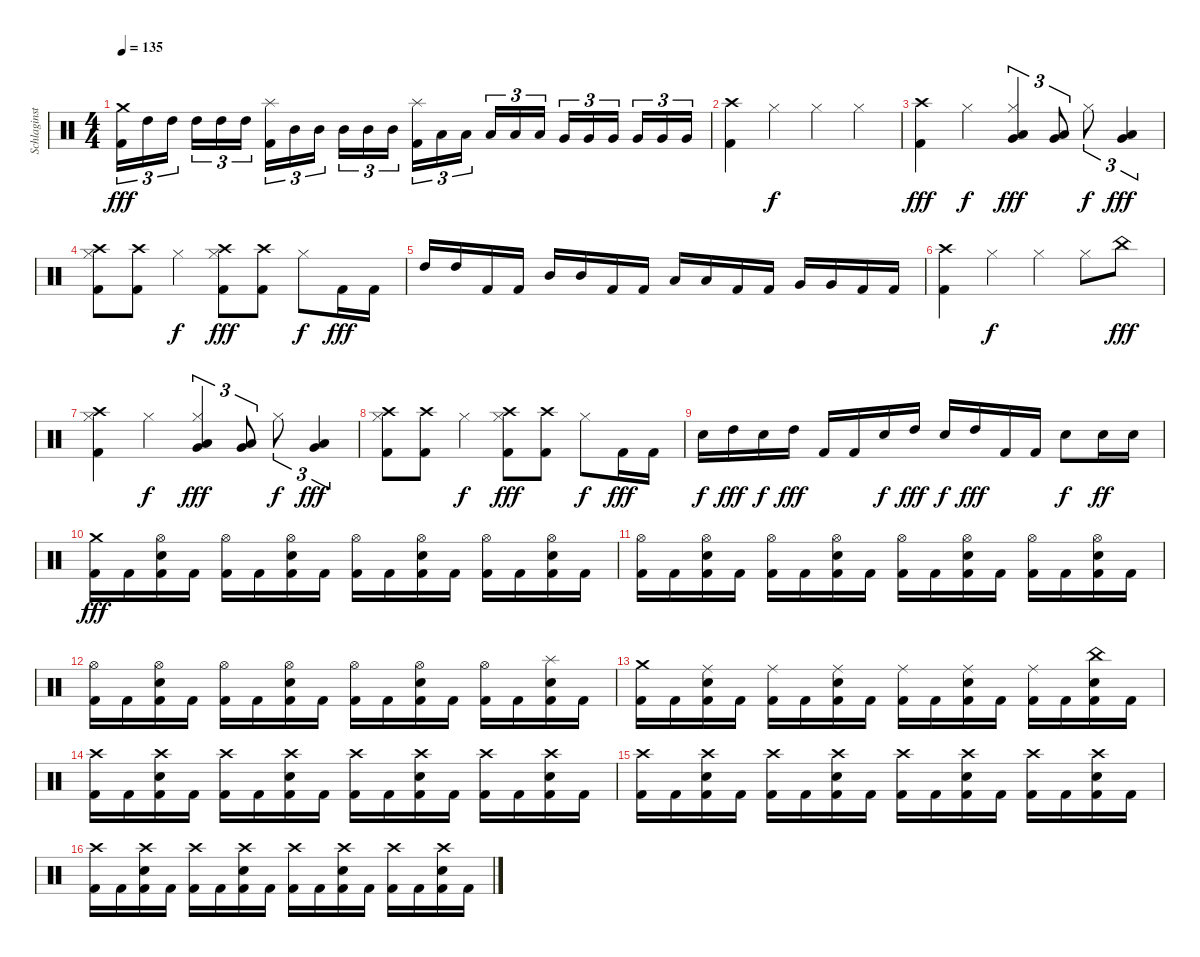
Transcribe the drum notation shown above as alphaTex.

\track ("Schlaginstrumente - Auswahl" "Schlaginst") {instrument percussion}
\staff {score}
\articulation defaults
\ts (4 4)
\tempo 135
\clef neutral
\ks c
("Crash medium (hit)" "Kick (hit) 2").16{tu (3 2) dy fff} "High Tom (hit)".16{tu (3 2)} "High Tom (hit)".16{tu (3 2) beam splitsecondary} "High Tom (hit)".16{tu (3 2)} "High Tom (hit)".16{tu (3 2)} "High Tom (hit)".16{tu (3 2)} ("Splash (hit)" "Kick (hit) 2").16{tu (3 2)} "Mid Tom (hit)".16{tu (3 2)} "Mid Tom (hit)".16{tu (3 2) beam splitsecondary} "Mid Tom (hit)".16{tu (3 2)} "Mid Tom (hit)".16{tu (3 2)} "Mid Tom (hit)".16{tu (3 2)} ("Splash (hit)" "Kick (hit) 2").16{tu (3 2)} "Low Tom (hit)".16{tu (3 2)} "Low Tom (hit)".16{tu (3 2) beam splitsecondary} "Low Tom (hit)".16{tu (3 2)} "Low Tom (hit)".16{tu (3 2)} "Low Tom (hit)".16{tu (3 2)} "Very Low Tom (hit)".16{tu (3 2)} "Very Low Tom (hit)".16{tu (3 2)} "Very Low Tom (hit)".16{tu (3 2) beam splitsecondary} "Very Low Tom (hit)".16{tu (3 2)} "Very Low Tom (hit)".16{tu (3 2)} "Very Low Tom (hit)".16{tu (3 2)} |
("Crash high (hit)" "Kick (hit) 2").4 "Hi-Hat (closed)".4{dy f} "Hi-Hat (closed)".4 "Hi-Hat (closed)".4 |
("Crash high (hit)" "Kick (hit) 2").4{dy fff} "Hi-Hat (closed)".4{dy f} ("Hi-Hat (closed)" "Very Low Tom (hit)" "Low Floor Tom (hit)").4{tu (3 2) dy fff} ("Very Low Tom (hit)" "Low Floor Tom (hit)").8{tu (3 2)} "Hi-Hat (closed)".8{tu (3 2) dy f} ("Very Low Tom (hit)" "Low Floor Tom (hit)").4{tu (3 2) dy fff} |
("Crash high (hit)" "Hi-Hat (closed)" "Kick (hit) 2").8 ("Crash high (hit)" "Kick (hit) 2").8 "Hi-Hat (closed)".4{dy f} ("Crash high (hit)" "Hi-Hat (closed)" "Kick (hit) 2").8{dy fff} ("Crash high (hit)" "Kick (hit) 2").8 "Hi-Hat (closed)".8{dy f} "Kick (hit) 2".16{dy fff} "Kick (hit) 2".16 |
"High Tom (hit)".16 "High Tom (hit)".16 "Kick (hit) 2".16 "Kick (hit) 2".16 "Mid Tom (hit)".16 "Mid Tom (hit)".16 "Kick (hit) 2".16 "Kick (hit) 2".16 "Low Tom (hit)".16 "Low Tom (hit)".16 "Kick (hit) 2".16 "Kick (hit) 2".16 "Very Low Tom (hit)".16 "Very Low Tom (hit)".16 "Kick (hit) 2".16 "Kick (hit) 2".16 |
("Crash high (hit)" "Kick (hit) 2").4 "Hi-Hat (closed)".4{dy f} "Hi-Hat (closed)".4 "Hi-Hat (closed)".8 "China (hit)".8{dy fff} |
("Crash high (hit)" "Hi-Hat (closed)" "Kick (hit) 2").4 "Hi-Hat (closed)".4{dy f} ("Hi-Hat (closed)" "Very Low Tom (hit)" "Low Floor Tom (hit)").4{tu (3 2) dy fff} ("Very Low Tom (hit)" "Low Floor Tom (hit)").8{tu (3 2)} "Hi-Hat (closed)".8{tu (3 2) dy f} ("Very Low Tom (hit)" "Low Floor Tom (hit)").4{tu (3 2) dy fff} |
("Crash high (hit)" "Hi-Hat (closed)" "Kick (hit) 2").8 ("Crash high (hit)" "Kick (hit) 2").8 "Hi-Hat (closed)".4{dy f} ("Crash high (hit)" "Hi-Hat (closed)" "Kick (hit) 2").8{dy fff} ("Crash high (hit)" "Kick (hit) 2").8 "Hi-Hat (closed)".8{dy f} "Kick (hit) 2".16{dy fff} "Kick (hit) 2".16 |
"Snare (hit) 2".16{dy f} "High Tom (hit)".16{dy fff} "Snare (hit) 2".16{dy f} "High Tom (hit)".16{dy fff} "Kick (hit) 2".16 "Kick (hit) 2".16 "Snare (hit) 2".16{dy f} "High Tom (hit)".16{dy fff} "Snare (hit) 2".16{dy f} "High Tom (hit)".16{dy fff} "Kick (hit) 2".16 "Kick (hit) 2".16 "Snare (hit) 2".8{dy f} "Snare (hit) 2".16{dy ff} "Snare (hit) 2".16 |
("Crash medium (hit)" "Kick (hit) 2").16{dy fff} "Kick (hit) 2".16 ("Hi-Hat (open)" "Snare (hit) 2" "Kick (hit) 2").16 "Kick (hit) 2".16 ("Hi-Hat (open)" "Kick (hit) 2").16 "Kick (hit) 2".16 ("Hi-Hat (open)" "Snare (hit) 2" "Kick (hit) 2").16 "Kick (hit) 2".16 ("Hi-Hat (open)" "Kick (hit) 2").16 "Kick (hit) 2".16 ("Hi-Hat (open)" "Snare (hit) 2" "Kick (hit) 2").16 "Kick (hit) 2".16 ("Hi-Hat (open)" "Kick (hit) 2").16 "Kick (hit) 2".16 ("Hi-Hat (open)" "Snare (hit) 2" "Kick (hit) 2").16 "Kick (hit) 2".16 |
("Hi-Hat (open)" "Kick (hit) 2").16 "Kick (hit) 2".16 ("Hi-Hat (open)" "Snare (hit) 2" "Kick (hit) 2").16 "Kick (hit) 2".16 ("Hi-Hat (open)" "Kick (hit) 2").16 "Kick (hit) 2".16 ("Hi-Hat (open)" "Snare (hit) 2" "Kick (hit) 2").16 "Kick (hit) 2".16 ("Hi-Hat (open)" "Kick (hit) 2").16 "Kick (hit) 2".16 ("Hi-Hat (open)" "Snare (hit) 2" "Kick (hit) 2").16 "Kick (hit) 2".16 ("Hi-Hat (open)" "Kick (hit) 2").16 "Kick (hit) 2".16 ("Hi-Hat (open)" "Snare (hit) 2" "Kick (hit) 2").16 "Kick (hit) 2".16 |
("Hi-Hat (open)" "Kick (hit) 2").16 "Kick (hit) 2".16 ("Hi-Hat (open)" "Snare (hit) 2" "Kick (hit) 2").16 "Kick (hit) 2".16 ("Hi-Hat (open)" "Kick (hit) 2").16 "Kick (hit) 2".16 ("Hi-Hat (open)" "Snare (hit) 2" "Kick (hit) 2").16 "Kick (hit) 2".16 ("Hi-Hat (open)" "Kick (hit) 2").16 "Kick (hit) 2".16 ("Hi-Hat (open)" "Snare (hit) 2" "Kick (hit) 2").16 "Kick (hit) 2".16 ("Hi-Hat (open)" "Kick (hit) 2").16 "Kick (hit) 2".16 ("Splash (hit)" "Snare (hit) 2" "Kick (hit) 2").16 "Kick (hit) 2".16 |
("Crash medium (hit)" "Kick (hit) 2").16 "Kick (hit) 2".16 ("Ride (middle)" "Snare (hit) 2" "Kick (hit) 2").16 "Kick (hit) 2".16 ("Ride (middle)" "Kick (hit) 2").16 "Kick (hit) 2".16 ("Ride (middle)" "Snare (hit) 2" "Kick (hit) 2").16 "Kick (hit) 2".16 ("Ride (middle)" "Kick (hit) 2").16 "Kick (hit) 2".16 ("Ride (middle)" "Snare (hit) 2" "Kick (hit) 2").16 "Kick (hit) 2".16 ("Ride (middle)" "Kick (hit) 2").16 "Kick (hit) 2".16 ("China (hit)" "Snare (hit) 2" "Kick (hit) 2").16 "Kick (hit) 2".16 |
("Crash high (hit)" "Kick (hit) 2").16 "Kick (hit) 2".16 ("Crash high (hit)" "Snare (hit) 2" "Kick (hit) 2").16 "Kick (hit) 2".16 ("Crash high (hit)" "Kick (hit) 2").16 "Kick (hit) 2".16 ("Crash high (hit)" "Snare (hit) 2" "Kick (hit) 2").16 "Kick (hit) 2".16 ("Crash high (hit)" "Kick (hit) 2").16 "Kick (hit) 2".16 ("Crash high (hit)" "Snare (hit) 2" "Kick (hit) 2").16 "Kick (hit) 2".16 ("Crash high (hit)" "Kick (hit) 2").16 "Kick (hit) 2".16 ("Crash high (hit)" "Snare (hit) 2" "Kick (hit) 2").16 "Kick (hit) 2".16 |
("Crash high (hit)" "Kick (hit) 2").16 "Kick (hit) 2".16 ("Crash high (hit)" "Snare (hit) 2" "Kick (hit) 2").16 "Kick (hit) 2".16 ("Crash high (hit)" "Kick (hit) 2").16 "Kick (hit) 2".16 ("Crash high (hit)" "Snare (hit) 2" "Kick (hit) 2").16 "Kick (hit) 2".16 ("Crash high (hit)" "Kick (hit) 2").16 "Kick (hit) 2".16 ("Crash high (hit)" "Snare (hit) 2" "Kick (hit) 2").16 "Kick (hit) 2".16 ("Crash high (hit)" "Kick (hit) 2").16 "Kick (hit) 2".16 ("Crash high (hit)" "Snare (hit) 2" "Kick (hit) 2").16 "Kick (hit) 2".16 |
("Crash high (hit)" "Kick (hit) 2").16 "Kick (hit) 2".16 ("Crash high (hit)" "Snare (hit) 2" "Kick (hit) 2").16 "Kick (hit) 2".16 ("Crash high (hit)" "Kick (hit) 2").16 "Kick (hit) 2".16 ("Crash high (hit)" "Snare (hit) 2" "Kick (hit) 2").16 "Kick (hit) 2".16 ("Crash high (hit)" "Kick (hit) 2").16 "Kick (hit) 2".16 ("Crash high (hit)" "Snare (hit) 2" "Kick (hit) 2").16 "Kick (hit) 2".16 ("Crash high (hit)" "Kick (hit) 2").16 "Kick (hit) 2".16 ("Crash high (hit)" "Snare (hit) 2" "Kick (hit) 2").16 "Kick (hit) 2".16
